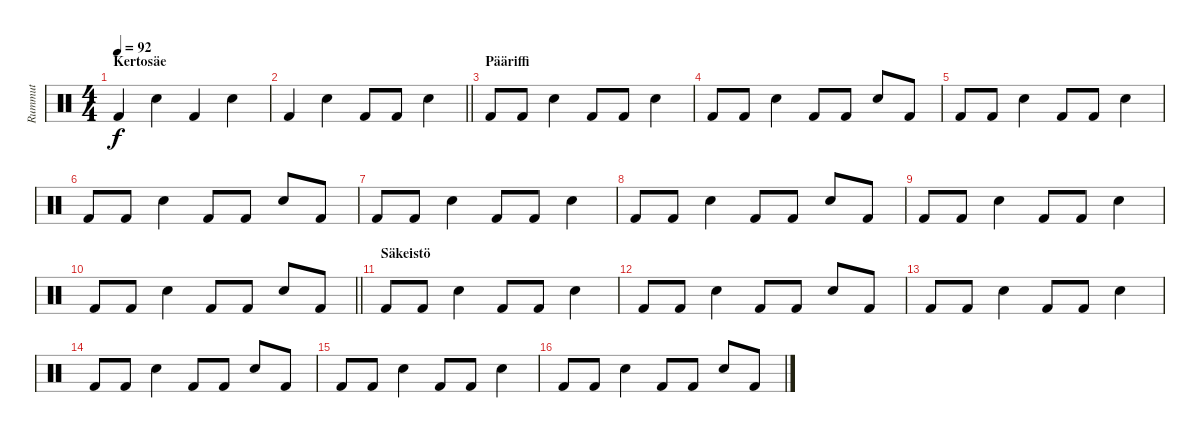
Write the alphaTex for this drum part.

\track ("Rummut" "Rummut") {instrument percussion}
\staff {score}
\articulation defaults
\ts (4 4)
\section ("" "Kertosäe")
\tempo 92
\clef neutral
\ks c "Kick (hit) 2".4{dy f} "Snare (hit) 2".4 "Kick (hit) 2".4 "Snare (hit) 2".4
|
\barLineRight lightlight "Kick (hit) 2".4 "Snare (hit) 2".4 "Kick (hit) 2".8 "Kick (hit) 2".8 "Snare (hit) 2".4
|
\section ("" "Pääriffi")
"Kick (hit) 2".8 "Kick (hit) 2".8 "Snare (hit) 2".4 "Kick (hit) 2".8 "Kick (hit) 2".8 "Snare (hit) 2".4 |
"Kick (hit) 2".8 "Kick (hit) 2".8 "Snare (hit) 2".4 "Kick (hit) 2".8 "Kick (hit) 2".8 "Snare (hit) 2".8 "Kick (hit) 2".8 |
"Kick (hit) 2".8 "Kick (hit) 2".8 "Snare (hit) 2".4 "Kick (hit) 2".8 "Kick (hit) 2".8 "Snare (hit) 2".4 |
"Kick (hit) 2".8 "Kick (hit) 2".8 "Snare (hit) 2".4 "Kick (hit) 2".8 "Kick (hit) 2".8 "Snare (hit) 2".8 "Kick (hit) 2".8 |
"Kick (hit) 2".8 "Kick (hit) 2".8 "Snare (hit) 2".4 "Kick (hit) 2".8 "Kick (hit) 2".8 "Snare (hit) 2".4 |
"Kick (hit) 2".8 "Kick (hit) 2".8 "Snare (hit) 2".4 "Kick (hit) 2".8 "Kick (hit) 2".8 "Snare (hit) 2".8 "Kick (hit) 2".8 |
"Kick (hit) 2".8 "Kick (hit) 2".8 "Snare (hit) 2".4 "Kick (hit) 2".8 "Kick (hit) 2".8 "Snare (hit) 2".4 |
\barLineRight lightlight "Kick (hit) 2".8 "Kick (hit) 2".8 "Snare (hit) 2".4 "Kick (hit) 2".8 "Kick (hit) 2".8 "Snare (hit) 2".8 "Kick (hit) 2".8
|
\section ("" "Säkeistö")
"Kick (hit) 2".8 "Kick (hit) 2".8 "Snare (hit) 2".4 "Kick (hit) 2".8 "Kick (hit) 2".8 "Snare (hit) 2".4 |
"Kick (hit) 2".8 "Kick (hit) 2".8 "Snare (hit) 2".4 "Kick (hit) 2".8 "Kick (hit) 2".8 "Snare (hit) 2".8 "Kick (hit) 2".8 |
"Kick (hit) 2".8 "Kick (hit) 2".8 "Snare (hit) 2".4 "Kick (hit) 2".8 "Kick (hit) 2".8 "Snare (hit) 2".4 |
"Kick (hit) 2".8 "Kick (hit) 2".8 "Snare (hit) 2".4 "Kick (hit) 2".8 "Kick (hit) 2".8 "Snare (hit) 2".8 "Kick (hit) 2".8 |
"Kick (hit) 2".8 "Kick (hit) 2".8 "Snare (hit) 2".4 "Kick (hit) 2".8 "Kick (hit) 2".8 "Snare (hit) 2".4 |
"Kick (hit) 2".8 "Kick (hit) 2".8 "Snare (hit) 2".4 "Kick (hit) 2".8 "Kick (hit) 2".8 "Snare (hit) 2".8 "Kick (hit) 2".8
